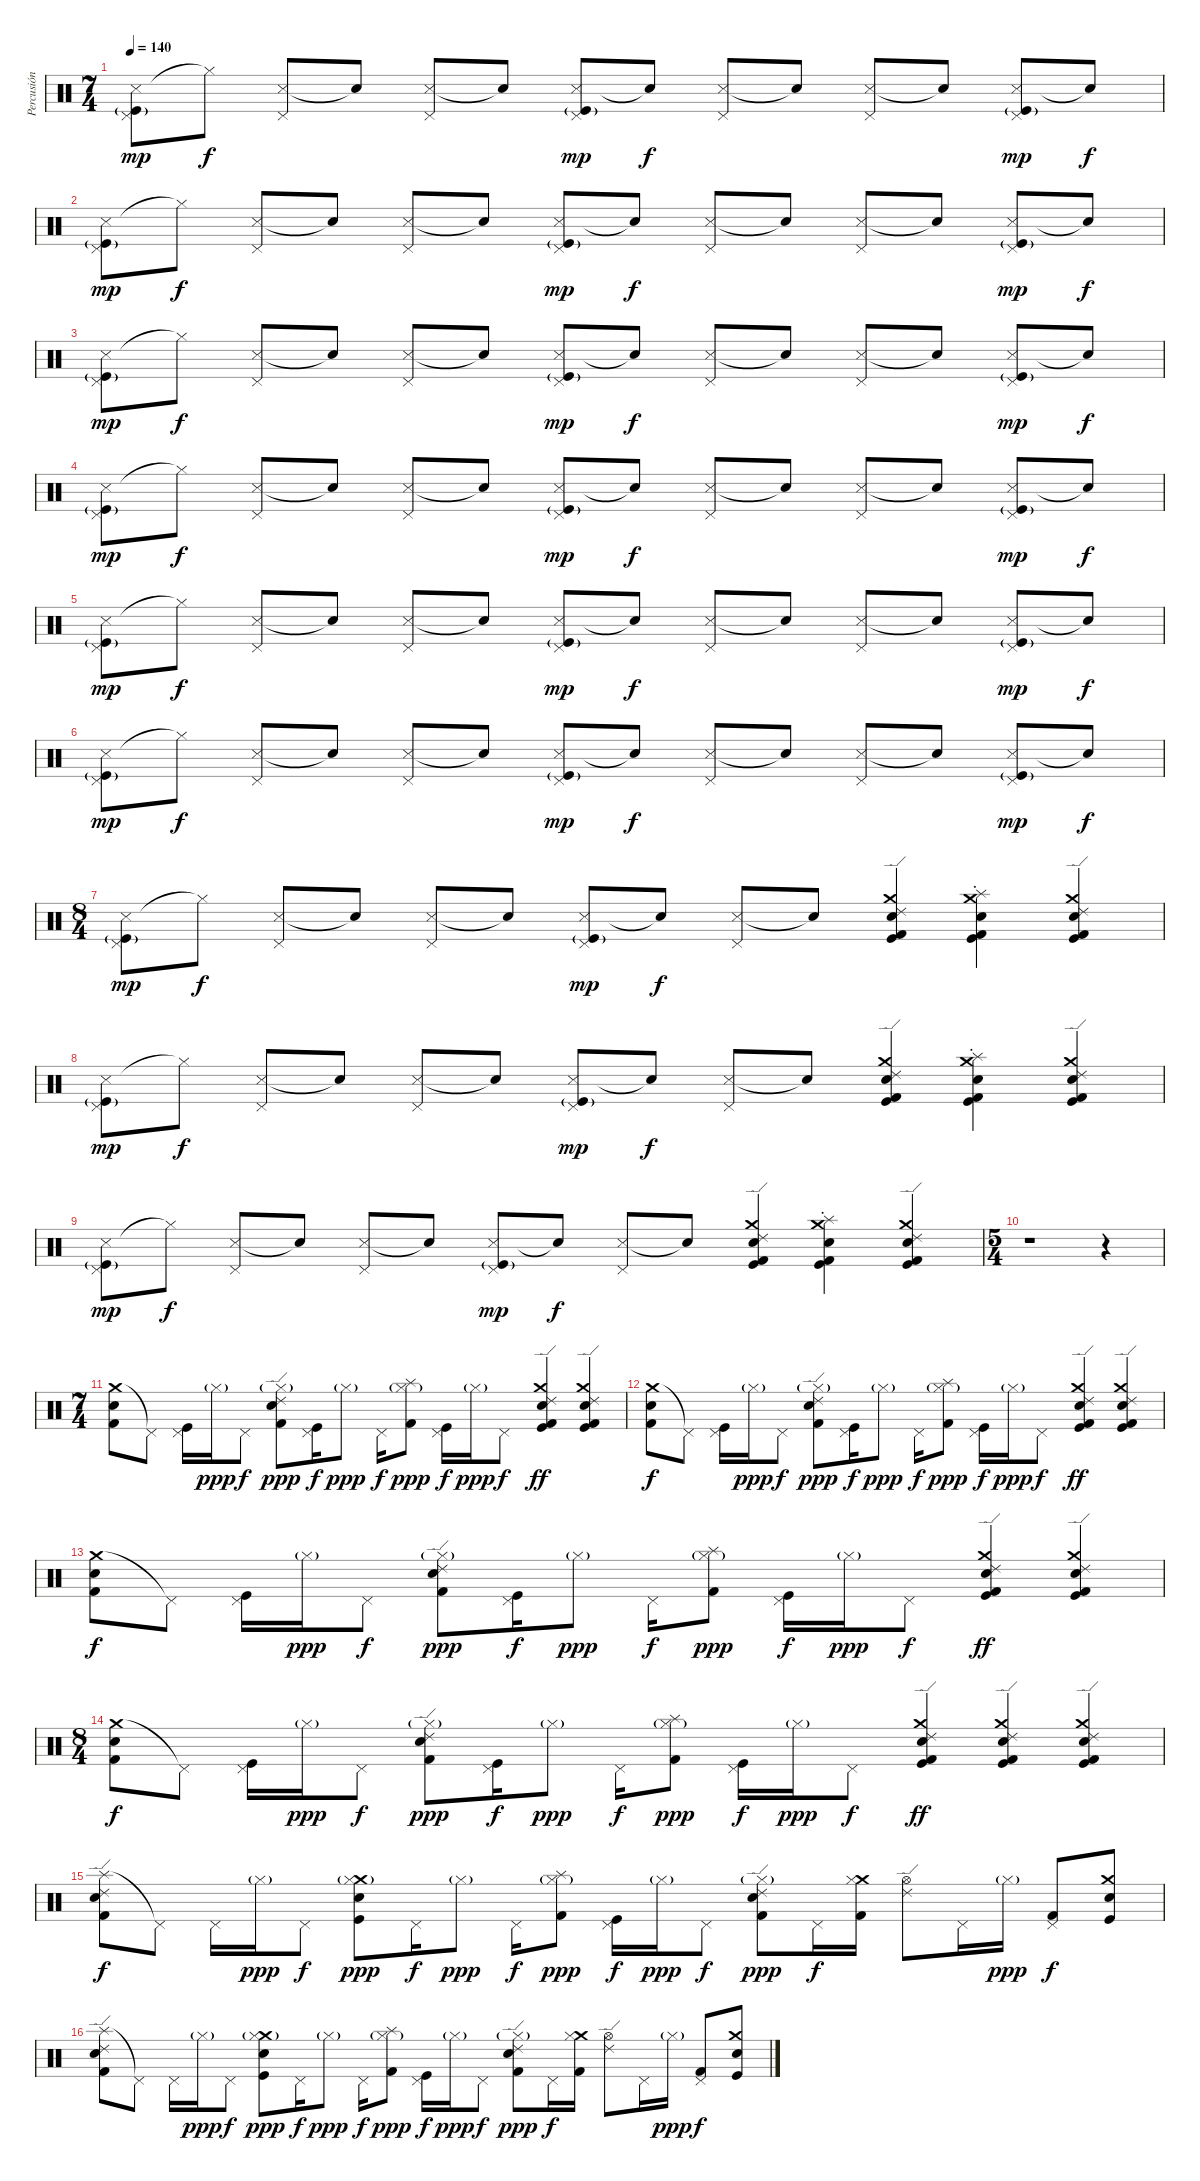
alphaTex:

\track ("Percusión" "Percusión") {instrument percussion}
\staff {score}
\articulation defaults
\ts (7 4)
\tempo 140
\clef neutral
\ks c
("Metronome (hit)" "Pedal Hi-Hat (hit)" "Kick (hit)"{g}).8{dy mp} "Hi-Hat (closed)"{t}.8{dy f} ("Metronome (hit)" "Pedal Hi-Hat (hit)").8 "Snare (hit)"{t}.8 ("Metronome (hit)" "Pedal Hi-Hat (hit)").8 "Snare (hit)"{t}.8 ("Metronome (hit)" "Pedal Hi-Hat (hit)" "Kick (hit)"{g}).8{dy mp} "Snare (hit)"{t}.8{dy f} ("Metronome (hit)" "Pedal Hi-Hat (hit)").8 "Snare (hit)"{t}.8 ("Metronome (hit)" "Pedal Hi-Hat (hit)").8 "Snare (hit)"{t}.8 ("Metronome (hit)" "Pedal Hi-Hat (hit)" "Kick (hit)"{g}).8{dy mp} "Snare (hit)"{t}.8{dy f} |
("Metronome (hit)" "Pedal Hi-Hat (hit)" "Kick (hit)"{g}).8{dy mp} "Hi-Hat (closed)"{t}.8{dy f} ("Metronome (hit)" "Pedal Hi-Hat (hit)").8 "Snare (hit)"{t}.8 ("Metronome (hit)" "Pedal Hi-Hat (hit)").8 "Snare (hit)"{t}.8 ("Metronome (hit)" "Pedal Hi-Hat (hit)" "Kick (hit)"{g}).8{dy mp} "Snare (hit)"{t}.8{dy f} ("Metronome (hit)" "Pedal Hi-Hat (hit)").8 "Snare (hit)"{t}.8 ("Metronome (hit)" "Pedal Hi-Hat (hit)").8 "Snare (hit)"{t}.8 ("Metronome (hit)" "Pedal Hi-Hat (hit)" "Kick (hit)"{g}).8{dy mp} "Snare (hit)"{t}.8{dy f} |
("Metronome (hit)" "Pedal Hi-Hat (hit)" "Kick (hit)"{g}).8{dy mp} "Hi-Hat (closed)"{t}.8{dy f} ("Metronome (hit)" "Pedal Hi-Hat (hit)").8 "Snare (hit)"{t}.8 ("Metronome (hit)" "Pedal Hi-Hat (hit)").8 "Snare (hit)"{t}.8 ("Metronome (hit)" "Pedal Hi-Hat (hit)" "Kick (hit)"{g}).8{dy mp} "Snare (hit)"{t}.8{dy f} ("Metronome (hit)" "Pedal Hi-Hat (hit)").8 "Snare (hit)"{t}.8 ("Metronome (hit)" "Pedal Hi-Hat (hit)").8 "Snare (hit)"{t}.8 ("Metronome (hit)" "Pedal Hi-Hat (hit)" "Kick (hit)"{g}).8{dy mp} "Snare (hit)"{t}.8{dy f} |
("Metronome (hit)" "Pedal Hi-Hat (hit)" "Kick (hit)"{g}).8{dy mp} "Hi-Hat (closed)"{t}.8{dy f} ("Metronome (hit)" "Pedal Hi-Hat (hit)").8 "Snare (hit)"{t}.8 ("Metronome (hit)" "Pedal Hi-Hat (hit)").8 "Snare (hit)"{t}.8 ("Metronome (hit)" "Pedal Hi-Hat (hit)" "Kick (hit)"{g}).8{dy mp} "Snare (hit)"{t}.8{dy f} ("Metronome (hit)" "Pedal Hi-Hat (hit)").8 "Snare (hit)"{t}.8 ("Metronome (hit)" "Pedal Hi-Hat (hit)").8 "Snare (hit)"{t}.8 ("Metronome (hit)" "Pedal Hi-Hat (hit)" "Kick (hit)"{g}).8{dy mp} "Snare (hit)"{t}.8{dy f} |
("Metronome (hit)" "Pedal Hi-Hat (hit)" "Kick (hit)"{g}).8{dy mp} "Hi-Hat (closed)"{t}.8{dy f} ("Metronome (hit)" "Pedal Hi-Hat (hit)").8 "Snare (hit)"{t}.8 ("Metronome (hit)" "Pedal Hi-Hat (hit)").8 "Snare (hit)"{t}.8 ("Metronome (hit)" "Pedal Hi-Hat (hit)" "Kick (hit)"{g}).8{dy mp} "Snare (hit)"{t}.8{dy f} ("Metronome (hit)" "Pedal Hi-Hat (hit)").8 "Snare (hit)"{t}.8 ("Metronome (hit)" "Pedal Hi-Hat (hit)").8 "Snare (hit)"{t}.8 ("Metronome (hit)" "Pedal Hi-Hat (hit)" "Kick (hit)"{g}).8{dy mp} "Snare (hit)"{t}.8{dy f} |
("Metronome (hit)" "Pedal Hi-Hat (hit)" "Kick (hit)"{g}).8{dy mp} "Hi-Hat (closed)"{t}.8{dy f} ("Metronome (hit)" "Pedal Hi-Hat (hit)").8 "Snare (hit)"{t}.8 ("Metronome (hit)" "Pedal Hi-Hat (hit)").8 "Snare (hit)"{t}.8 ("Metronome (hit)" "Pedal Hi-Hat (hit)" "Kick (hit)"{g}).8{dy mp} "Snare (hit)"{t}.8{dy f} ("Metronome (hit)" "Pedal Hi-Hat (hit)").8 "Snare (hit)"{t}.8 ("Metronome (hit)" "Pedal Hi-Hat (hit)").8 "Snare (hit)"{t}.8 ("Metronome (hit)" "Pedal Hi-Hat (hit)" "Kick (hit)"{g}).8{dy mp} "Snare (hit)"{t}.8{dy f} |
\ts (8 4)
("Metronome (hit)" "Pedal Hi-Hat (hit)" "Kick (hit)"{g}).8{dy mp} "Hi-Hat (closed)"{t}.8{dy f} ("Metronome (hit)" "Pedal Hi-Hat (hit)").8 "Snare (hit)"{t}.8 ("Metronome (hit)" "Pedal Hi-Hat (hit)").8 "Snare (hit)"{t}.8 ("Metronome (hit)" "Pedal Hi-Hat (hit)" "Kick (hit)"{g}).8{dy mp} "Snare (hit)"{t}.8{dy f} ("Metronome (hit)" "Pedal Hi-Hat (hit)").8 "Snare (hit)"{t}.8 ("Ride (edge) 2" "Crash medium (hit)" "Snare (hit) 2" "Kick (hit)" "Kick (hit) 2").4 ("Splash (choke)" "Crash medium (hit)" "Snare (hit) 2" "Kick (hit) 2" "Kick (hit)").4 ("Ride (edge) 2" "Crash medium (hit)" "Snare (hit) 2" "Kick (hit) 2" "Kick (hit)").4 |
("Metronome (hit)" "Pedal Hi-Hat (hit)" "Kick (hit)"{g}).8{dy mp} "Hi-Hat (closed)"{t}.8{dy f} ("Metronome (hit)" "Pedal Hi-Hat (hit)").8 "Snare (hit)"{t}.8 ("Metronome (hit)" "Pedal Hi-Hat (hit)").8 "Snare (hit)"{t}.8 ("Metronome (hit)" "Pedal Hi-Hat (hit)" "Kick (hit)"{g}).8{dy mp} "Snare (hit)"{t}.8{dy f} ("Metronome (hit)" "Pedal Hi-Hat (hit)").8 "Snare (hit)"{t}.8 ("Ride (edge) 2" "Crash medium (hit)" "Snare (hit) 2" "Kick (hit)" "Kick (hit) 2").4 ("Splash (choke)" "Crash medium (hit)" "Snare (hit) 2" "Kick (hit) 2" "Kick (hit)").4 ("Ride (edge) 2" "Crash medium (hit)" "Snare (hit) 2" "Kick (hit) 2" "Kick (hit)").4 |
("Metronome (hit)" "Pedal Hi-Hat (hit)" "Kick (hit)"{g}).8{dy mp} "Hi-Hat (closed)"{t}.8{dy f} ("Metronome (hit)" "Pedal Hi-Hat (hit)").8 "Snare (hit)"{t}.8 ("Metronome (hit)" "Pedal Hi-Hat (hit)").8 "Snare (hit)"{t}.8 ("Metronome (hit)" "Pedal Hi-Hat (hit)" "Kick (hit)"{g}).8{dy mp} "Snare (hit)"{t}.8{dy f} ("Metronome (hit)" "Pedal Hi-Hat (hit)").8 "Snare (hit)"{t}.8 ("Ride (edge) 2" "Crash medium (hit)" "Snare (hit) 2" "Kick (hit)" "Kick (hit) 2").4 ("Splash (choke)" "Crash medium (hit)" "Snare (hit) 2" "Kick (hit) 2" "Kick (hit)").4 ("Ride (edge) 2" "Crash medium (hit)" "Snare (hit) 2" "Kick (hit) 2" "Kick (hit)").4 |
\ts (5 4)
r.1 r.4 |
\ts (7 4)
("Crash medium (hit)" "Electric Snare (hit)" "Kick (hit) 2").8 "Pedal Hi-Hat (hit)"{t}.8 ("Pedal Hi-Hat (hit)" "Kick (hit)").16 "Hi-Hat (closed)"{g}.16{dy ppp} "Pedal Hi-Hat (hit)".8{dy f} ("Ride (edge) 2" "Electric Snare (hit)" "Hi-Hat (closed)"{g} "Kick (hit) 2").8{dy ppp} ("Pedal Hi-Hat (hit)" "Kick (hit)").16{dy f} "Hi-Hat (closed)"{g}.8{dy ppp} "Pedal Hi-Hat (hit)".16{dy f} ("Splash (hit)" "Hi-Hat (closed)"{g} "Kick (hit) 2").8{dy ppp} ("Pedal Hi-Hat (hit)" "Kick (hit)").16{dy f} "Hi-Hat (closed)"{g}.16{dy ppp} "Pedal Hi-Hat (hit)".8{dy f} ("Ride (edge) 2" "Crash medium (hit)" "Snare (hit) 2" "Kick (hit)" "Kick (hit) 2").4{dy ff} ("Ride (edge) 2" "Crash medium (hit)" "Snare (hit) 2" "Kick (hit)" "Kick (hit) 2").4 |
("Crash medium (hit)" "Electric Snare (hit)" "Kick (hit) 2").8{dy f} "Pedal Hi-Hat (hit)"{t}.8 ("Pedal Hi-Hat (hit)" "Kick (hit)").16 "Hi-Hat (closed)"{g}.16{dy ppp} "Pedal Hi-Hat (hit)".8{dy f} ("Ride (edge) 2" "Electric Snare (hit)" "Hi-Hat (closed)"{g} "Kick (hit) 2").8{dy ppp} ("Pedal Hi-Hat (hit)" "Kick (hit)").16{dy f} "Hi-Hat (closed)"{g}.8{dy ppp} "Pedal Hi-Hat (hit)".16{dy f} ("Splash (hit)" "Hi-Hat (closed)"{g} "Kick (hit) 2").8{dy ppp} ("Pedal Hi-Hat (hit)" "Kick (hit)").16{dy f} "Hi-Hat (closed)"{g}.16{dy ppp} "Pedal Hi-Hat (hit)".8{dy f} ("Ride (edge) 2" "Crash medium (hit)" "Snare (hit) 2" "Kick (hit)" "Kick (hit) 2").4{dy ff} ("Ride (edge) 2" "Crash medium (hit)" "Snare (hit) 2" "Kick (hit)" "Kick (hit) 2").4 |
("Crash medium (hit)" "Electric Snare (hit)" "Kick (hit) 2").8{dy f} "Pedal Hi-Hat (hit)"{t}.8 ("Pedal Hi-Hat (hit)" "Kick (hit)").16 "Hi-Hat (closed)"{g}.16{dy ppp} "Pedal Hi-Hat (hit)".8{dy f} ("Ride (edge) 2" "Electric Snare (hit)" "Hi-Hat (closed)"{g} "Kick (hit) 2").8{dy ppp} ("Pedal Hi-Hat (hit)" "Kick (hit)").16{dy f} "Hi-Hat (closed)"{g}.8{dy ppp} "Pedal Hi-Hat (hit)".16{dy f} ("Splash (hit)" "Hi-Hat (closed)"{g} "Kick (hit) 2").8{dy ppp} ("Pedal Hi-Hat (hit)" "Kick (hit)").16{dy f} "Hi-Hat (closed)"{g}.16{dy ppp} "Pedal Hi-Hat (hit)".8{dy f} ("Ride (edge) 2" "Crash medium (hit)" "Snare (hit) 2" "Kick (hit)" "Kick (hit) 2").4{dy ff} ("Ride (edge) 2" "Crash medium (hit)" "Snare (hit) 2" "Kick (hit)" "Kick (hit) 2").4 |
\ts (8 4)
("Crash medium (hit)" "Electric Snare (hit)" "Kick (hit) 2").8{dy f} "Pedal Hi-Hat (hit)"{t}.8 ("Pedal Hi-Hat (hit)" "Kick (hit)").16 "Hi-Hat (closed)"{g}.16{dy ppp} "Pedal Hi-Hat (hit)".8{dy f} ("Ride (edge) 2" "Electric Snare (hit)" "Hi-Hat (closed)"{g} "Kick (hit) 2").8{dy ppp} ("Pedal Hi-Hat (hit)" "Kick (hit)").16{dy f} "Hi-Hat (closed)"{g}.8{dy ppp} "Pedal Hi-Hat (hit)".16{dy f} ("Splash (hit)" "Hi-Hat (closed)"{g} "Kick (hit) 2").8{dy ppp} ("Pedal Hi-Hat (hit)" "Kick (hit)").16{dy f} "Hi-Hat (closed)"{g}.16{dy ppp} "Pedal Hi-Hat (hit)".8{dy f} ("Ride (edge) 2" "Crash medium (hit)" "Snare (hit) 2" "Kick (hit)" "Kick (hit) 2").4{dy ff} ("Ride (edge) 2" "Crash medium (hit)" "Snare (hit) 2" "Kick (hit)" "Kick (hit) 2").4 ("Ride (edge) 2" "Crash medium (hit)" "Snare (hit) 2" "Kick (hit)" "Kick (hit) 2").4 |
("Splash (hit)" "Ride (edge) 2" "Electric Snare (hit)" "Kick (hit) 2").8{dy f} "Pedal Hi-Hat (hit)"{t}.8 "Pedal Hi-Hat (hit)".16 "Hi-Hat (closed)"{g}.16{dy ppp} "Pedal Hi-Hat (hit)".8{dy f} ("Crash medium (hit)" "Snare (hit) 2" "Hi-Hat (closed)"{g} "Kick (hit)").8{dy ppp} "Pedal Hi-Hat (hit)".16{dy f} "Hi-Hat (closed)"{g}.8{dy ppp} "Pedal Hi-Hat (hit)".16{dy f} ("Splash (hit)" "Hi-Hat (closed)"{g} "Kick (hit) 2").8{dy ppp} ("Pedal Hi-Hat (hit)" "Kick (hit)").16{dy f} "Hi-Hat (closed)"{g}.16{dy ppp} "Pedal Hi-Hat (hit)".8{dy f} ("Ride (edge) 2" "Electric Snare (hit)" "Hi-Hat (closed)"{g} "Kick (hit) 2").8{dy ppp} "Pedal Hi-Hat (hit)".16{dy f} ("Crash medium (hit)" "Hi-Hat (closed)" "Kick (hit) 2").16 ("Ride (edge) 2" "Hi-Hat (open)").8 "Pedal Hi-Hat (hit)".16 "Hi-Hat (closed)"{g}.16{dy ppp} ("Pedal Hi-Hat (hit)" "Kick (hit) 2").8{dy f} ("Crash medium (hit)" "Electric Snare (hit)" "Kick (hit)").8 |
("Splash (hit)" "Ride (edge) 2" "Electric Snare (hit)" "Kick (hit) 2").8 "Pedal Hi-Hat (hit)"{t}.8 "Pedal Hi-Hat (hit)".16 "Hi-Hat (closed)"{g}.16{dy ppp} "Pedal Hi-Hat (hit)".8{dy f} ("Crash medium (hit)" "Snare (hit) 2" "Hi-Hat (closed)"{g} "Kick (hit)").8{dy ppp} "Pedal Hi-Hat (hit)".16{dy f} "Hi-Hat (closed)"{g}.8{dy ppp} "Pedal Hi-Hat (hit)".16{dy f} ("Splash (hit)" "Hi-Hat (closed)"{g} "Kick (hit) 2").8{dy ppp} ("Pedal Hi-Hat (hit)" "Kick (hit)").16{dy f} "Hi-Hat (closed)"{g}.16{dy ppp} "Pedal Hi-Hat (hit)".8{dy f} ("Ride (edge) 2" "Electric Snare (hit)" "Hi-Hat (closed)"{g} "Kick (hit) 2").8{dy ppp} "Pedal Hi-Hat (hit)".16{dy f} ("Crash medium (hit)" "Hi-Hat (closed)" "Kick (hit) 2").16 ("Ride (edge) 2" "Hi-Hat (open)").8 "Pedal Hi-Hat (hit)".16 "Hi-Hat (closed)"{g}.16{dy ppp} ("Pedal Hi-Hat (hit)" "Kick (hit) 2").8{dy f} ("Crash medium (hit)" "Electric Snare (hit)" "Kick (hit)").8
